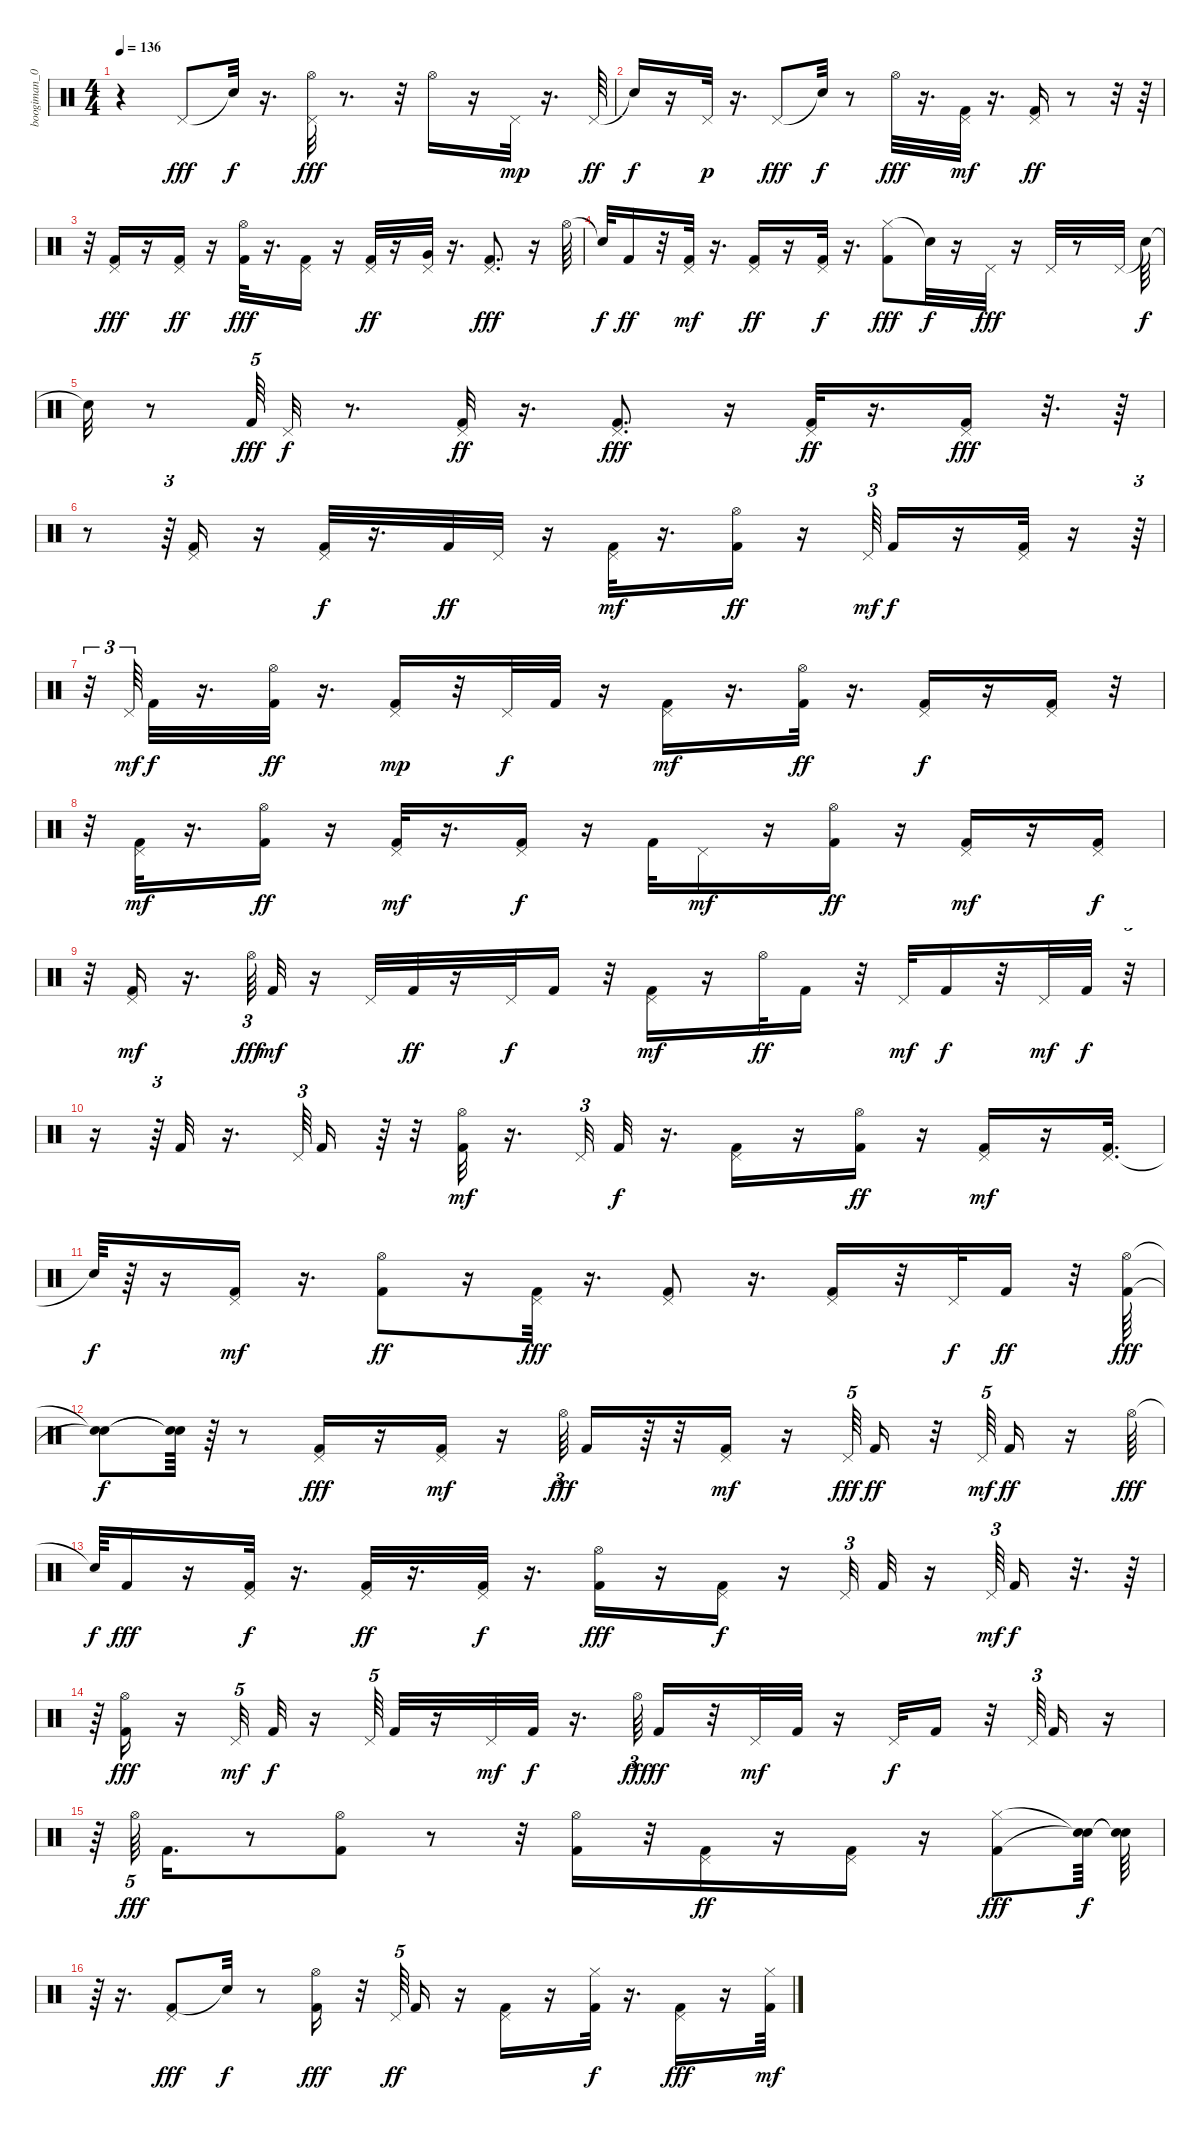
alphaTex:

\track ("boogiman_007@yahoo.com" "boogiman_0") {instrument percussion}
\staff {score}
\articulation defaults
\ts (4 4)
\tempo 136
\clef neutral
\ks c
r.4{dy f} "Pedal Hi-Hat (hit)".8{dy fff} "Snare (hit)"{t}.32{dy f} r.16{d} ("Hi-Hat (open)" "Pedal Hi-Hat (hit)").32{dy fff} r.8{d} r.32 "Hi-Hat (open)".16 r.16 "Pedal Hi-Hat (hit)".32{dy mp} r.16{d} "Pedal Hi-Hat (hit)".64{dy ff} |
"Snare (hit)"{t}.16{dy f} r.16 "Pedal Hi-Hat (hit)".32{dy p} r.16{d} "Pedal Hi-Hat (hit)".8{dy fff} "Snare (hit)"{t}.32{dy f} r.8 "Hi-Hat (open)".32{dy fff} r.16{d} ("Pedal Hi-Hat (hit)" "Kick (hit) 2").32{dy mf} r.16{d} ("Kick (hit) 2" "Pedal Hi-Hat (hit)").16{dy ff} r.8 r.32 r.64 |
r.32 ("Kick (hit) 2" "Pedal Hi-Hat (hit)").16{dy fff} r.16 ("Pedal Hi-Hat (hit)" "Kick (hit) 2").16{dy ff} r.16 ("Hi-Hat (open)" "Kick (hit) 2").32{dy fff} r.16{d} ("Pedal Hi-Hat (hit)" "Kick (hit) 2").16 r.16 ("Pedal Hi-Hat (hit)" "Kick (hit) 2").32{dy ff} r.16 ("Very Low Tom (hit)" "Pedal Hi-Hat (hit)").32 r.16{d} ("Kick (hit) 2" "Pedal Hi-Hat (hit)").8{d dy fff} r.16 "Hi-Hat (open)".64 |
"Snare (hit)"{t}.32{dy f} "Kick (hit) 2".16{dy ff} r.32 ("Kick (hit) 2" "Pedal Hi-Hat (hit)").32{dy mf} r.16{d} ("Pedal Hi-Hat (hit)" "Kick (hit) 2").16{dy ff} r.16 ("Kick (hit) 2" "Pedal Hi-Hat (hit)").32{dy f} r.16{d} ("Hi-Hat (closed)" "Kick (hit) 2").8{dy fff} "Snare (hit)"{t}.32{dy f} r.16 "Pedal Hi-Hat (hit)".32{dy fff} r.16 "Pedal Hi-Hat (hit)".32 r.8 "Pedal Hi-Hat (hit)".32 "Snare (hit)"{t}.64{dy f} |
"Snare (hit)"{t}.32 r.8 "Kick (hit) 2".64{tu (5 4) dy fff} "Pedal Hi-Hat (hit)".32{dy f} r.8{d} ("Pedal Hi-Hat (hit)" "Kick (hit) 2").32{dy ff} r.16{d} ("Pedal Hi-Hat (hit)" "Kick (hit) 2").8{d dy fff} r.16 ("Kick (hit) 2" "Pedal Hi-Hat (hit)").32{dy ff} r.16{d} ("Kick (hit) 2" "Pedal Hi-Hat (hit)").16{dy fff} r.32{d} r.64 |
r.8 r.64{tu (3 2)} ("Kick (hit) 2" "Pedal Hi-Hat (hit)").16 r.16 ("Pedal Hi-Hat (hit)" "Kick (hit) 2").32{dy f} r.16{d} "Kick (hit) 2".32{dy ff} "Pedal Hi-Hat (hit)".32 r.16 ("Kick (hit) 2" "Pedal Hi-Hat (hit)").32{dy mf} r.16{d} ("Hi-Hat (open)" "Kick (hit) 2").16{dy ff} r.16 "Pedal Hi-Hat (hit)".64{tu (3 2) dy mf} "Kick (hit) 2".16{dy f} r.16 ("Pedal Hi-Hat (hit)" "Kick (hit) 2").32 r.16 r.64{tu (3 2)} |
r.32{tu (3 2)} "Pedal Hi-Hat (hit)".64{tu (3 2) dy mf} "Kick (hit) 2".32{dy f} r.16{d} ("Hi-Hat (open)" "Kick (hit) 2").32{dy ff} r.16{d} ("Kick (hit) 2" "Pedal Hi-Hat (hit)").16{dy mp} r.32 "Pedal Hi-Hat (hit)".32{dy f} "Kick (hit) 2".32 r.16 ("Pedal Hi-Hat (hit)" "Kick (hit) 2").16{dy mf} r.16{d} ("Hi-Hat (open)" "Kick (hit) 2").32{dy ff} r.16{d} ("Kick (hit) 2" "Pedal Hi-Hat (hit)").16{dy f} r.16 ("Kick (hit) 2" "Pedal Hi-Hat (hit)").16 r.32 |
r.32 ("Pedal Hi-Hat (hit)" "Kick (hit) 2").32{dy mf} r.16{d} ("Hi-Hat (open)" "Kick (hit) 2").16{dy ff} r.16 ("Pedal Hi-Hat (hit)" "Kick (hit) 2").32{dy mf} r.16{d} ("Kick (hit) 2" "Pedal Hi-Hat (hit)").16{dy f} r.16 "Kick (hit) 2".32 "Pedal Hi-Hat (hit)".16{dy mf} r.16 ("Hi-Hat (open)" "Kick (hit) 2").16{dy ff} r.16 ("Pedal Hi-Hat (hit)" "Kick (hit) 2").16{dy mf} r.16 ("Pedal Hi-Hat (hit)" "Kick (hit) 2").16{dy f} |
r.32 ("Pedal Hi-Hat (hit)" "Kick (hit) 2").16{dy mf} r.16{d} "Hi-Hat (open)".64{tu (3 2) dy fff} "Kick (hit) 2".32{dy mf} r.16 "Pedal Hi-Hat (hit)".32 "Kick (hit) 2".32{dy ff} r.16 "Pedal Hi-Hat (hit)".32{dy f} "Kick (hit) 2".16 r.32 ("Kick (hit) 2" "Pedal Hi-Hat (hit)").16{dy mf} r.16 "Hi-Hat (open)".32{dy ff} "Kick (hit) 2".16 r.32 "Pedal Hi-Hat (hit)".32{dy mf} "Kick (hit) 2".16{dy f} r.32 "Pedal Hi-Hat (hit)".32{dy mf} "Kick (hit) 2".32{dy f} r.32{tu (3 2)} |
r.16 r.64{tu (3 2)} "Kick (hit) 2".32 r.16{d} "Pedal Hi-Hat (hit)".64{tu (3 2)} "Kick (hit) 2".16 r.64 r.32 ("Hi-Hat (open)" "Kick (hit) 2").32{dy mf} r.16{d} "Pedal Hi-Hat (hit)".32{tu (3 2)} "Kick (hit) 2".32{dy f} r.16{d} ("Kick (hit) 2" "Pedal Hi-Hat (hit)").16 r.16 ("Hi-Hat (open)" "Kick (hit) 2").16{dy ff} r.16 ("Pedal Hi-Hat (hit)" "Kick (hit) 2").16{dy mf} r.16 ("Pedal Hi-Hat (hit)" "Kick (hit) 2").32{d} |
"Snare (hit)"{t}.64{dy f} r.64 r.16 ("Pedal Hi-Hat (hit)" "Kick (hit) 2").16{dy mf} r.16{d} ("Hi-Hat (open)" "Kick (hit) 2").8{dy ff} r.16 ("Kick (hit) 2" "Pedal Hi-Hat (hit)").32{dy fff} r.16{d} ("Pedal Hi-Hat (hit)" "Kick (hit) 2").8 r.16{d} ("Kick (hit) 2" "Pedal Hi-Hat (hit)").16 r.32 "Pedal Hi-Hat (hit)".32{dy f} "Kick (hit) 2".16{dy ff} r.32 ("Hi-Hat (open)" "Kick (hit) 2").64{dy fff} |
("Snare (hit)"{t} "Snare (hit)"{t}).8{dy f} ("Snare (hit)"{t} "Snare (hit)"{t}).64 r.64 r.8 ("Pedal Hi-Hat (hit)" "Kick (hit) 2").16{dy fff} r.16 ("Pedal Hi-Hat (hit)" "Kick (hit) 2").16{dy mf} r.16 "Hi-Hat (open)".64{tu (3 2) dy fff} "Kick (hit) 2".16 r.64 r.32 ("Pedal Hi-Hat (hit)" "Kick (hit) 2").16{dy mf} r.16 "Pedal Hi-Hat (hit)".64{tu (5 4) dy fff} "Kick (hit) 2".16{dy ff} r.32 "Pedal Hi-Hat (hit)".64{tu (5 4) dy mf} "Kick (hit) 2".16{dy ff} r.16 "Hi-Hat (open)".64{dy fff} |
"Snare (hit)"{t}.64{dy f} "Kick (hit) 2".16{dy fff} r.16 ("Pedal Hi-Hat (hit)" "Kick (hit) 2").32{dy f} r.16{d} ("Pedal Hi-Hat (hit)" "Kick (hit) 2").32{dy ff} r.16{d} ("Pedal Hi-Hat (hit)" "Kick (hit) 2").32{dy f} r.16{d} ("Hi-Hat (open)" "Kick (hit) 2").16{dy fff} r.16 ("Pedal Hi-Hat (hit)" "Kick (hit) 2").16{dy f} r.16 "Pedal Hi-Hat (hit)".32{tu (3 2)} "Kick (hit) 2".32 r.16 "Pedal Hi-Hat (hit)".64{tu (3 2) dy mf} "Kick (hit) 2".16{dy f} r.32{d} r.64 |
r.64 ("Hi-Hat (open)" "Kick (hit) 2").16{dy fff} r.16 "Pedal Hi-Hat (hit)".32{tu (5 4) dy mf} "Kick (hit) 2".32{dy f} r.16 "Pedal Hi-Hat (hit)".64{tu (5 4)} "Kick (hit) 2".32 r.16 "Pedal Hi-Hat (hit)".32{dy mf} "Kick (hit) 2".32{dy f} r.16{d} "Hi-Hat (open)".64{tu (3 2) dy fff} "Kick (hit) 2".16{dy ff} r.32 "Pedal Hi-Hat (hit)".32{dy mf} "Kick (hit) 2".32 r.16 "Pedal Hi-Hat (hit)".32{dy f} "Kick (hit) 2".16 r.32 "Pedal Hi-Hat (hit)".64{tu (3 2)} "Kick (hit) 2".16 r.16 |
r.64 "Hi-Hat (open)".64{tu (5 4) dy fff} "Kick (hit) 2".16{d} r.8 ("Hi-Hat (open)" "Kick (hit) 2").8 r.8 r.32 ("Kick (hit) 2" "Hi-Hat (open)").16 r.32 ("Pedal Hi-Hat (hit)" "Kick (hit) 2").16{dy ff} r.16 ("Pedal Hi-Hat (hit)" "Kick (hit) 2").16 r.16 ("Hi-Hat (closed)" "Kick (hit) 2").8{dy fff} ("Snare (hit)"{t} "Snare (hit)"{t}).64{dy f} ("Snare (hit)"{t} "Snare (hit)"{t}).64 |
r.64 r.16{d} ("Kick (hit) 2" "Pedal Hi-Hat (hit)").8{dy fff} "Snare (hit)"{t}.32{dy f} r.8 ("Hi-Hat (open)" "Kick (hit) 2").16{dy fff} r.32 "Pedal Hi-Hat (hit)".64{tu (5 4) dy ff} "Kick (hit) 2".16 r.16 ("Kick (hit) 2" "Pedal Hi-Hat (hit)").16 r.16 ("Hi-Hat (closed)" "Kick (hit) 2").32{dy f} r.16{d} ("Pedal Hi-Hat (hit)" "Kick (hit) 2").16{dy fff} r.16 ("Kick (hit) 2" "Hi-Hat (closed)").64{dy mf}
